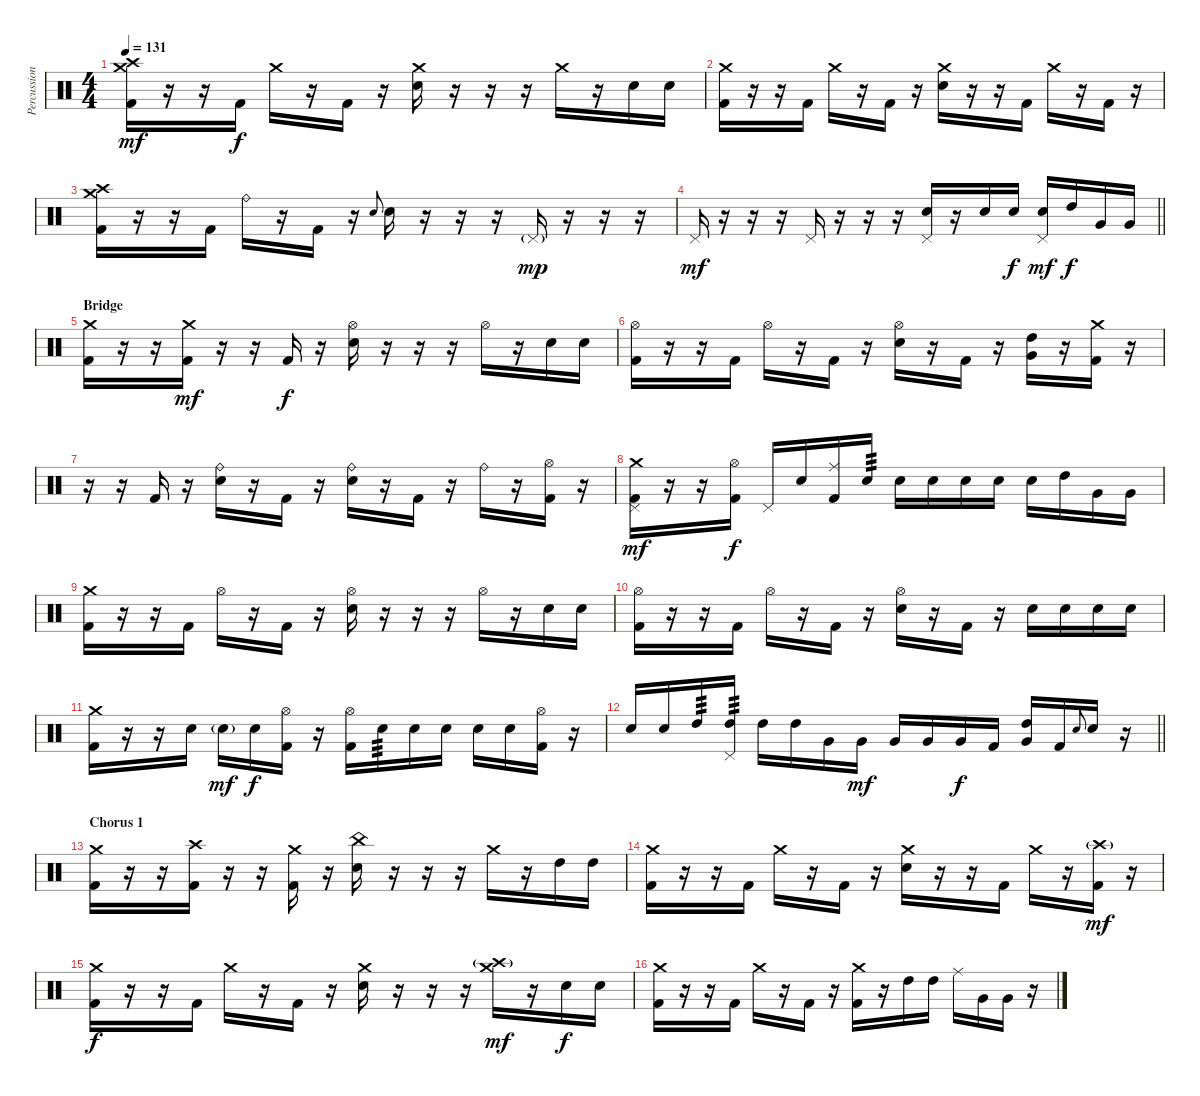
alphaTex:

\track ("Percussion" "Percussion") {instrument percussion}
\staff {score}
\articulation defaults
\ts (4 4)
\tempo 131
\clef neutral
\ks c
("Crash medium (hit)" "Crash high (hit)" "Kick (hit) 2").16{dy mf} r.16 r.16 "Kick (hit) 2".16{dy f} "Crash medium (hit)".16 r.16 "Kick (hit) 2".16 r.16 ("Crash medium (hit)" "Snare (hit) 2").16 r.16 r.16 r.16 "Crash medium (hit)".16 r.16 "Snare (hit) 2".16 "Snare (hit) 2".16 |
("Crash medium (hit)" "Kick (hit) 2").16 r.16 r.16 "Kick (hit) 2".16 "Crash medium (hit)".16 r.16 "Kick (hit) 2".16 r.16 ("Crash medium (hit)" "Snare (hit) 2").16 r.16 r.16 "Kick (hit) 2".16 "Crash medium (hit)".16 r.16 "Kick (hit) 2".16 r.16 |
("Crash high (hit)" "Crash medium (hit)" "Kick (hit) 2").16 r.16 r.16 "Kick (hit) 2".16 "Ride (bell)".16 r.16 "Kick (hit) 2".16 r.16 "Snare (hit) 2".8{gr onbeat} "Snare (hit) 2".16 r.16 r.16 r.16 "Pedal Hi-Hat (hit)"{g}.16{dy mp} r.16 r.16 r.16 |
\barLineRight lightlight "Pedal Hi-Hat (hit)".16{dy mf}
r.16 r.16 r.16 "Pedal Hi-Hat (hit)".16 r.16 r.16 r.16 ("Pedal Hi-Hat (hit)" "Snare (hit) 2").16 r.16 "Snare (hit) 2".16 "Snare (hit) 2".16{dy f} ("Pedal Hi-Hat (hit)" "Snare (hit) 2").16{dy mf} "High Tom (hit)".16{dy f} "Very Low Tom (hit)".16 "Very Low Tom (hit)".16 |
\section ("" "Bridge")
("Crash medium (hit)" "Kick (hit) 2").16 r.16 r.16 ("Crash medium (hit)" "Kick (hit) 2").16{dy mf} r.16 r.16 "Kick (hit) 2".16{dy f} r.16 ("Hi-Hat (open)" "Snare (hit) 2").16 r.16 r.16 r.16 "Hi-Hat (open)".16 r.16 "Snare (hit) 2".16 "Snare (hit) 2".16 |
("Hi-Hat (open)" "Kick (hit) 2").16 r.16 r.16 "Kick (hit) 2".16 "Hi-Hat (open)".16 r.16 "Kick (hit) 2".16 r.16 ("Hi-Hat (open)" "Snare (hit) 2").16 r.16 "Kick (hit) 2".16 r.16 ("High Tom (hit)" "Very Low Tom (hit)").16{bu 60} r.16 ("Crash medium (hit)" "Kick (hit) 2").16 r.16 |
r.16 r.16 "Kick (hit) 2".16 r.16 ("Ride (bell)" "Snare (hit) 2").16 r.16 "Kick (hit) 2".16 r.16 ("Ride (bell)" "Snare (hit) 2").16 r.16 "Kick (hit) 2".16 r.16 "Ride (bell)".16 r.16 ("Hi-Hat (open)" "Kick (hit) 2").16 r.16 |
("Crash medium (hit)" "Pedal Hi-Hat (hit)" "Kick (hit) 2").16{dy mf} r.16 r.16 ("Hi-Hat (open)" "Kick (hit) 2").16{dy f} "Pedal Hi-Hat (hit)".16 "Snare (hit) 2".16 ("Ride (middle)" "Kick (hit) 2").16 "Snare (hit) 2".16{tp 3} "Snare (hit) 2".16 "Snare (hit) 2".16 "Snare (hit) 2".16 "Snare (hit) 2".16 "Snare (hit) 2".16 "High Tom (hit)".16 "Very Low Tom (hit)".16 "Very Low Tom (hit)".16 |
("Crash medium (hit)" "Kick (hit) 2").16 r.16 r.16 "Kick (hit) 2".16 "Hi-Hat (open)".16 r.16 "Kick (hit) 2".16 r.16 ("Hi-Hat (open)" "Snare (hit) 2").16 r.16 r.16 r.16 "Hi-Hat (open)".16 r.16 "Snare (hit) 2".16 "Snare (hit) 2".16 |
("Hi-Hat (open)" "Kick (hit) 2").16 r.16 r.16 "Kick (hit) 2".16 "Hi-Hat (open)".16 r.16 "Kick (hit) 2".16 r.16 ("Hi-Hat (open)" "Snare (hit) 2").16 r.16 "Kick (hit) 2".16 r.16 "Snare (hit) 2".16 "Snare (hit) 2".16 "Snare (hit) 2".16 "Snare (hit) 2".16 |
("Crash medium (hit)" "Kick (hit) 2").16 r.16 r.16 "Snare (hit) 2".16 "Snare (hit) 2"{g}.16{dy mf} "Snare (hit) 2".16{dy f} ("Hi-Hat (open)" "Kick (hit) 2").16 r.16 ("Hi-Hat (open)" "Kick (hit) 2").16 "Snare (hit) 2".16{tp 3} "Snare (hit) 2".16 "Snare (hit) 2".16 "Snare (hit) 2".16 "Snare (hit) 2".16 ("Hi-Hat (open)" "Kick (hit) 2").16 r.16 |
\barLineRight lightlight "Snare (hit) 2".16 "Snare (hit) 2".16 "High Tom (hit)".16{tp 3}
("Pedal Hi-Hat (hit)" "High Tom (hit)").16{tp 3} "High Tom (hit)".16 "High Tom (hit)".16 "Very Low Tom (hit)".16 "Very Low Tom (hit)".16{dy mf} "Very Low Tom (hit)".16 "Very Low Tom (hit)".16 "Very Low Tom (hit)".16{dy f} "Kick (hit) 2".16 ("High Tom (hit)" "Very Low Tom (hit)").16{bu 60} "Kick (hit) 2".16 "Snare (hit) 2".8{gr onbeat} "Snare (hit) 2".16 r.16 |
\section ("" "Chorus 1")
("Crash medium (hit)" "Kick (hit) 2").16 r.16 r.16 ("Crash high (hit)" "Kick (hit) 2").16 r.16 r.16 ("Crash medium (hit)" "Kick (hit) 2").16 r.16 ("China (hit)" "Snare (hit) 2").16 r.16 r.16 r.16 "Crash medium (hit)".16 r.16 "High Tom (hit)".16 "High Tom (hit)".16 |
("Crash medium (hit)" "Kick (hit) 2").16 r.16 r.16 "Kick (hit) 2".16 "Crash medium (hit)".16 r.16 "Kick (hit) 2".16 r.16 ("Crash medium (hit)" "Snare (hit) 2").16 r.16 r.16 "Kick (hit) 2".16 "Crash medium (hit)".16 r.16 ("Crash high (hit)"{g} "Kick (hit) 2").16{dy mf} r.16 |
("Crash medium (hit)" "Kick (hit) 2").16{dy f} r.16 r.16 "Kick (hit) 2".16 "Crash medium (hit)".16 r.16 "Kick (hit) 2".16 r.16 ("Crash medium (hit)" "Snare (hit) 2").16 r.16 r.16 r.16 ("Crash medium (hit)" "Crash high (hit)"{g}).16{dy mf} r.16 "Snare (hit) 2".16{dy f} "Snare (hit) 2".16 |
("Crash medium (hit)" "Kick (hit) 2").16 r.16 r.16 "Kick (hit) 2".16 "Crash medium (hit)".16 r.16 "Kick (hit) 2".16 r.16 ("Crash medium (hit)" "Kick (hit) 2").16 r.16 "High Tom (hit)".16 "High Tom (hit)".16 "Ride (middle)".16 "Very Low Tom (hit)".16 "Very Low Tom (hit)".16 r.16
